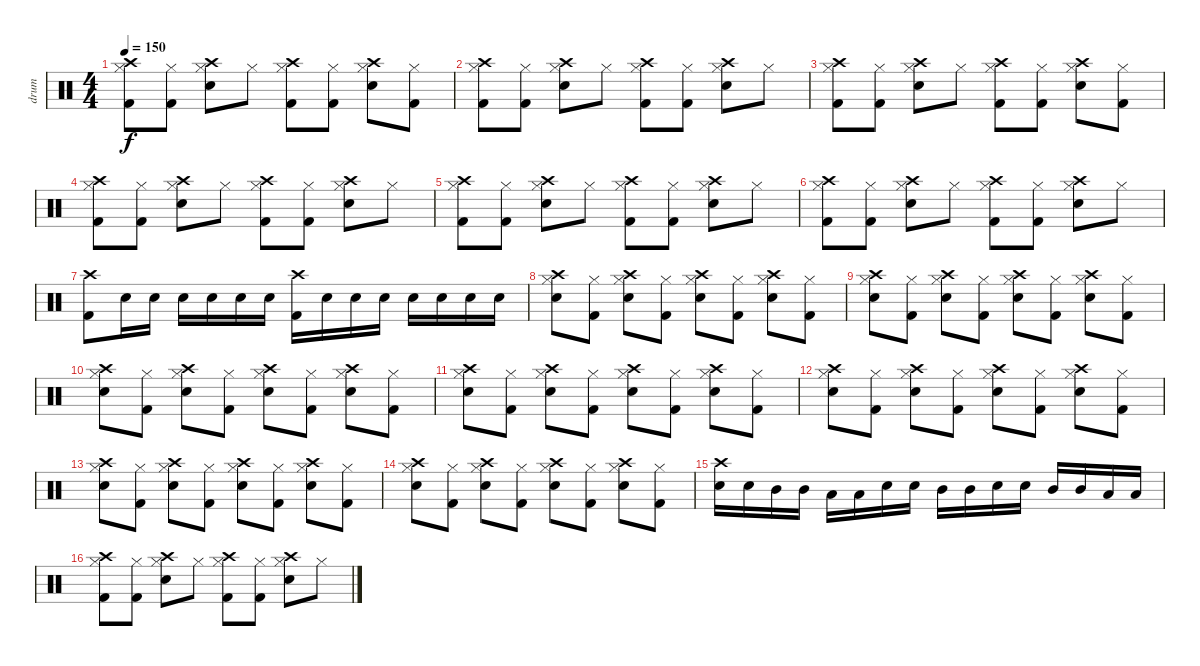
\track ("drum" "drum") {instrument percussion}
\staff {score}
\articulation defaults
\ts (4 4)
\tempo 150
\clef neutral
\ks c
("Crash high (hit)" "Hi-Hat (closed)" "Kick (hit) 2").8{dy f} ("Hi-Hat (closed)" "Kick (hit) 2").8 ("Crash high (hit)" "Hi-Hat (closed)" "Electric Snare (hit)").8 "Hi-Hat (closed)".8 ("Crash high (hit)" "Hi-Hat (closed)" "Kick (hit) 2").8 ("Hi-Hat (closed)" "Kick (hit) 2").8 ("Crash high (hit)" "Hi-Hat (closed)" "Electric Snare (hit)").8 ("Hi-Hat (closed)" "Kick (hit) 2").8 |
("Crash high (hit)" "Hi-Hat (closed)" "Kick (hit) 2").8 ("Hi-Hat (closed)" "Kick (hit) 2").8 ("Crash high (hit)" "Hi-Hat (closed)" "Electric Snare (hit)").8 "Hi-Hat (closed)".8 ("Crash high (hit)" "Hi-Hat (closed)" "Kick (hit) 2").8 ("Hi-Hat (closed)" "Kick (hit) 2").8 ("Crash high (hit)" "Hi-Hat (closed)" "Electric Snare (hit)").8 "Hi-Hat (closed)".8 |
("Crash high (hit)" "Hi-Hat (closed)" "Kick (hit) 2").8 ("Hi-Hat (closed)" "Kick (hit) 2").8 ("Crash high (hit)" "Hi-Hat (closed)" "Electric Snare (hit)").8 "Hi-Hat (closed)".8 ("Crash high (hit)" "Hi-Hat (closed)" "Kick (hit) 2").8 ("Hi-Hat (closed)" "Kick (hit) 2").8 ("Crash high (hit)" "Hi-Hat (closed)" "Electric Snare (hit)").8 ("Hi-Hat (closed)" "Kick (hit) 2").8 |
("Crash high (hit)" "Hi-Hat (closed)" "Kick (hit) 2").8 ("Hi-Hat (closed)" "Kick (hit) 2").8 ("Crash high (hit)" "Hi-Hat (closed)" "Electric Snare (hit)").8 "Hi-Hat (closed)".8 ("Crash high (hit)" "Hi-Hat (closed)" "Kick (hit) 2").8 ("Hi-Hat (closed)" "Kick (hit) 2").8 ("Crash high (hit)" "Hi-Hat (closed)" "Electric Snare (hit)").8 "Hi-Hat (closed)".8 |
("Crash high (hit)" "Hi-Hat (closed)" "Kick (hit) 2").8 ("Hi-Hat (closed)" "Kick (hit) 2").8 ("Crash high (hit)" "Hi-Hat (closed)" "Electric Snare (hit)").8 "Hi-Hat (closed)".8 ("Crash high (hit)" "Hi-Hat (closed)" "Kick (hit) 2").8 ("Hi-Hat (closed)" "Kick (hit) 2").8 ("Crash high (hit)" "Hi-Hat (closed)" "Electric Snare (hit)").8 "Hi-Hat (closed)".8 |
("Crash high (hit)" "Hi-Hat (closed)" "Kick (hit) 2").8 ("Hi-Hat (closed)" "Kick (hit) 2").8 ("Crash high (hit)" "Hi-Hat (closed)" "Electric Snare (hit)").8 "Hi-Hat (closed)".8 ("Crash high (hit)" "Hi-Hat (closed)" "Kick (hit) 2").8 ("Hi-Hat (closed)" "Kick (hit) 2").8 ("Crash high (hit)" "Hi-Hat (closed)" "Electric Snare (hit)").8 "Hi-Hat (closed)".8 |
("Crash high (hit)" "Kick (hit) 2").8 "Electric Snare (hit)".16 "Electric Snare (hit)".16 "Electric Snare (hit)".16 "Electric Snare (hit)".16 "Electric Snare (hit)".16 "Electric Snare (hit)".16 ("Crash high (hit)" "Kick (hit) 2").16 "Electric Snare (hit)".16 "Electric Snare (hit)".16 "Electric Snare (hit)".16 "Electric Snare (hit)".16 "Electric Snare (hit)".16 "Electric Snare (hit)".16 "Electric Snare (hit)".16 |
("Crash high (hit)" "Hi-Hat (closed)" "Electric Snare (hit)").8 ("Hi-Hat (closed)" "Kick (hit) 2").8 ("Crash high (hit)" "Hi-Hat (closed)" "Electric Snare (hit)").8 ("Hi-Hat (closed)" "Kick (hit) 2").8 ("Crash high (hit)" "Hi-Hat (closed)" "Electric Snare (hit)").8 ("Hi-Hat (closed)" "Kick (hit) 2").8 ("Crash high (hit)" "Hi-Hat (closed)" "Electric Snare (hit)").8 ("Hi-Hat (closed)" "Kick (hit) 2").8 |
("Crash high (hit)" "Hi-Hat (closed)" "Electric Snare (hit)").8 ("Hi-Hat (closed)" "Kick (hit) 2").8 ("Crash high (hit)" "Hi-Hat (closed)" "Electric Snare (hit)").8 ("Hi-Hat (closed)" "Kick (hit) 2").8 ("Crash high (hit)" "Hi-Hat (closed)" "Electric Snare (hit)").8 ("Hi-Hat (closed)" "Kick (hit) 2").8 ("Crash high (hit)" "Hi-Hat (closed)" "Electric Snare (hit)").8 ("Hi-Hat (closed)" "Kick (hit) 2").8 |
("Crash high (hit)" "Hi-Hat (closed)" "Electric Snare (hit)").8 ("Hi-Hat (closed)" "Kick (hit) 2").8 ("Crash high (hit)" "Hi-Hat (closed)" "Electric Snare (hit)").8 ("Hi-Hat (closed)" "Kick (hit) 2").8 ("Crash high (hit)" "Hi-Hat (closed)" "Electric Snare (hit)").8 ("Hi-Hat (closed)" "Kick (hit) 2").8 ("Crash high (hit)" "Hi-Hat (closed)" "Electric Snare (hit)").8 ("Hi-Hat (closed)" "Kick (hit) 2").8 |
("Crash high (hit)" "Hi-Hat (closed)" "Electric Snare (hit)").8 ("Hi-Hat (closed)" "Kick (hit) 2").8 ("Crash high (hit)" "Hi-Hat (closed)" "Electric Snare (hit)").8 ("Hi-Hat (closed)" "Kick (hit) 2").8 ("Crash high (hit)" "Hi-Hat (closed)" "Electric Snare (hit)").8 ("Hi-Hat (closed)" "Kick (hit) 2").8 ("Crash high (hit)" "Hi-Hat (closed)" "Electric Snare (hit)").8 ("Hi-Hat (closed)" "Kick (hit) 2").8 |
("Crash high (hit)" "Hi-Hat (closed)" "Electric Snare (hit)").8 ("Hi-Hat (closed)" "Kick (hit) 2").8 ("Crash high (hit)" "Hi-Hat (closed)" "Electric Snare (hit)").8 ("Hi-Hat (closed)" "Kick (hit) 2").8 ("Crash high (hit)" "Hi-Hat (closed)" "Electric Snare (hit)").8 ("Hi-Hat (closed)" "Kick (hit) 2").8 ("Crash high (hit)" "Hi-Hat (closed)" "Electric Snare (hit)").8 ("Hi-Hat (closed)" "Kick (hit) 2").8 |
("Crash high (hit)" "Hi-Hat (closed)" "Electric Snare (hit)").8 ("Hi-Hat (closed)" "Kick (hit) 2").8 ("Crash high (hit)" "Hi-Hat (closed)" "Electric Snare (hit)").8 ("Hi-Hat (closed)" "Kick (hit) 2").8 ("Crash high (hit)" "Hi-Hat (closed)" "Electric Snare (hit)").8 ("Hi-Hat (closed)" "Kick (hit) 2").8 ("Crash high (hit)" "Hi-Hat (closed)" "Electric Snare (hit)").8 ("Hi-Hat (closed)" "Kick (hit) 2").8 |
("Crash high (hit)" "Hi-Hat (closed)" "Electric Snare (hit)").8 ("Hi-Hat (closed)" "Kick (hit) 2").8 ("Crash high (hit)" "Hi-Hat (closed)" "Electric Snare (hit)").8 ("Hi-Hat (closed)" "Kick (hit) 2").8 ("Crash high (hit)" "Hi-Hat (closed)" "Electric Snare (hit)").8 ("Hi-Hat (closed)" "Kick (hit) 2").8 ("Crash high (hit)" "Hi-Hat (closed)" "Electric Snare (hit)").8 ("Hi-Hat (closed)" "Kick (hit) 2").8 |
("Crash high (hit)" "Electric Snare (hit)").16 "Electric Snare (hit)".16 "Mid Tom (hit)".16 "Mid Tom (hit)".16 "Low Tom (hit)".16 "Low Tom (hit)".16 "Electric Snare (hit)".16 "Electric Snare (hit)".16 "Mid Tom (hit)".16 "Mid Tom (hit)".16 "Electric Snare (hit)".16 "Electric Snare (hit)".16 "Mid Tom (hit)".16 "Mid Tom (hit)".16 "Low Tom (hit)".16 "Low Tom (hit)".16 |
("Crash high (hit)" "Hi-Hat (closed)" "Kick (hit) 2").8 ("Hi-Hat (closed)" "Kick (hit) 2").8 ("Crash high (hit)" "Hi-Hat (closed)" "Electric Snare (hit)").8 "Hi-Hat (closed)".8 ("Crash high (hit)" "Hi-Hat (closed)" "Kick (hit) 2").8 ("Hi-Hat (closed)" "Kick (hit) 2").8 ("Crash high (hit)" "Hi-Hat (closed)" "Electric Snare (hit)").8 "Hi-Hat (closed)".8
